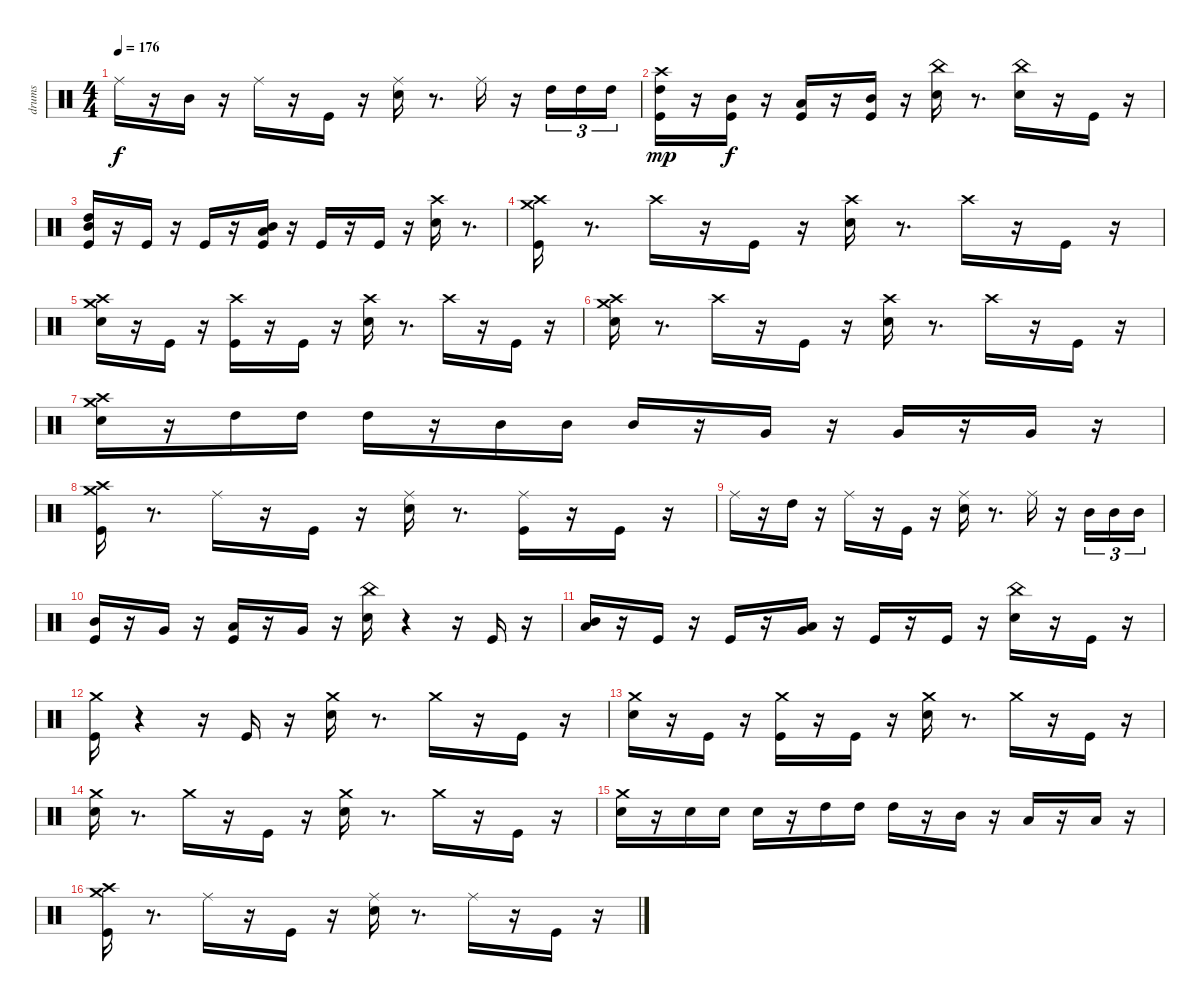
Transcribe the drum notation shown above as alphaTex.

\track ("drums" "drums") {instrument percussion}
\staff {score}
\articulation defaults
\ts (4 4)
\tempo 176
\clef neutral
\ks c "Ride (middle)".16{dy f}
r.16 "Mid Tom (hit)".16 r.16 "Ride (middle)".16 r.16 "Kick (hit)".16 r.16 ("Snare (hit) 2" "Ride (middle)").16 r.8{d} "Ride (middle)".16 r.16 "High Tom (hit)".16{tu (3 2)} "High Tom (hit)".16{tu (3 2)} "High Tom (hit)".16{tu (3 2)} |
("Kick (hit)" "High Tom (hit)" "Crash high (hit)").16{dy mp} r.16 ("Kick (hit)" "Mid Tom (hit)").16{dy f} r.16 ("Kick (hit)" "Low Tom (hit)").16 r.16 ("Kick (hit)" "Mid Tom (hit)").16 r.16 ("Snare (hit) 2" "China (hit)").16 r.8{d} ("Snare (hit) 2" "China (hit)").16 r.16 "Kick (hit)".16 r.16 |
("Kick (hit)" "Mid Tom (hit)" "High Tom (hit)").16 r.16 "Kick (hit)".16 r.16 "Kick (hit)".16 r.16 ("Kick (hit)" "Low Tom (hit)" "Mid Tom (hit)").16 r.16 "Kick (hit)".16 r.16 "Kick (hit)".16 r.16 ("Snare (hit) 2" "Crash high (hit)").16 r.8{d} |
("Kick (hit)" "Crash high (hit)" "Crash medium (hit)").16 r.8{d} "Crash high (hit)".16 r.16 "Kick (hit)".16 r.16 ("Snare (hit) 2" "Crash high (hit)").16 r.8{d} "Crash high (hit)".16 r.16 "Kick (hit)".16 r.16 |
("Snare (hit) 2" "Crash high (hit)" "Crash medium (hit)").16 r.16 "Kick (hit)".16 r.16 ("Kick (hit)" "Crash high (hit)").16 r.16 "Kick (hit)".16 r.16 ("Snare (hit) 2" "Crash high (hit)").16 r.8{d} "Crash high (hit)".16 r.16 "Kick (hit)".16 r.16 |
("Snare (hit) 2" "Crash high (hit)" "Crash medium (hit)").16 r.8{d} "Crash high (hit)".16 r.16 "Kick (hit)".16 r.16 ("Snare (hit) 2" "Crash high (hit)").16 r.8{d} "Crash high (hit)".16 r.16 "Kick (hit)".16 r.16 |
("Snare (hit) 2" "Crash high (hit)" "Crash medium (hit)").16 r.16 "High Tom (hit)".16 "High Tom (hit)".16 "High Tom (hit)".16 r.16 "Mid Tom (hit)".16 "Mid Tom (hit)".16 "Mid Tom (hit)".16 r.16 "Very Low Tom (hit)".16 r.16 "Very Low Tom (hit)".16 r.16 "Very Low Tom (hit)".16 r.16 |
("Kick (hit)" "Crash high (hit)" "Crash medium (hit)").16 r.8{d} "Ride (middle)".16 r.16 "Kick (hit)".16 r.16 ("Snare (hit) 2" "Ride (middle)").16 r.8{d} ("Kick (hit)" "Ride (middle)").16 r.16 "Kick (hit)".16 r.16 |
"Ride (middle)".16 r.16 "High Tom (hit)".16 r.16 "Ride (middle)".16 r.16 "Kick (hit)".16 r.16 ("Snare (hit) 2" "Ride (middle)").16 r.8{d} "Ride (middle)".16 r.16 "Mid Tom (hit)".16{tu (3 2)} "Mid Tom (hit)".16{tu (3 2)} "Mid Tom (hit)".16{tu (3 2)} |
("Kick (hit)" "Mid Tom (hit)").16 r.16 "Very Low Tom (hit)".16 r.16 ("Kick (hit)" "Low Tom (hit)").16 r.16 "Very Low Tom (hit)".16 r.16 ("Snare (hit) 2" "China (hit)").16 r.4 r.16 "Kick (hit)".16 r.16 |
("Low Tom (hit)" "Mid Tom (hit)").16 r.16 "Kick (hit)".16 r.16 "Kick (hit)".16 r.16 ("Very Low Tom (hit)" "Low Tom (hit)").16 r.16 "Kick (hit)".16 r.16 "Kick (hit)".16 r.16 ("Snare (hit) 2" "China (hit)").16 r.16 "Kick (hit)".16 r.16 |
("Kick (hit)" "Crash medium (hit)").16 r.4 r.16 "Kick (hit)".16 r.16 ("Snare (hit) 2" "Crash medium (hit)").16 r.8{d} "Crash medium (hit)".16 r.16 "Kick (hit)".16 r.16 |
("Snare (hit) 2" "Crash medium (hit)").16 r.16 "Kick (hit)".16 r.16 ("Kick (hit)" "Crash medium (hit)").16 r.16 "Kick (hit)".16 r.16 ("Snare (hit) 2" "Crash medium (hit)").16 r.8{d} "Crash medium (hit)".16 r.16 "Kick (hit)".16 r.16 |
("Snare (hit) 2" "Crash medium (hit)").16 r.8{d} "Crash medium (hit)".16 r.16 "Kick (hit)".16 r.16 ("Snare (hit) 2" "Crash medium (hit)").16 r.8{d} "Crash medium (hit)".16 r.16 "Kick (hit)".16 r.16 |
("Snare (hit) 2" "Crash medium (hit)").16 r.16 "Snare (hit) 2".16 "Snare (hit) 2".16 "Snare (hit) 2".16 r.16 "High Tom (hit)".16 "High Tom (hit)".16 "High Tom (hit)".16 r.16 "Mid Tom (hit)".16 r.16 "Low Tom (hit)".16 r.16 "Low Tom (hit)".16 r.16 |
("Kick (hit)" "Crash high (hit)" "Crash medium (hit)").16 r.8{d} "Ride (middle)".16 r.16 "Kick (hit)".16 r.16 ("Snare (hit) 2" "Ride (middle)").16 r.8{d} "Ride (middle)".16 r.16 "Kick (hit)".16 r.16
